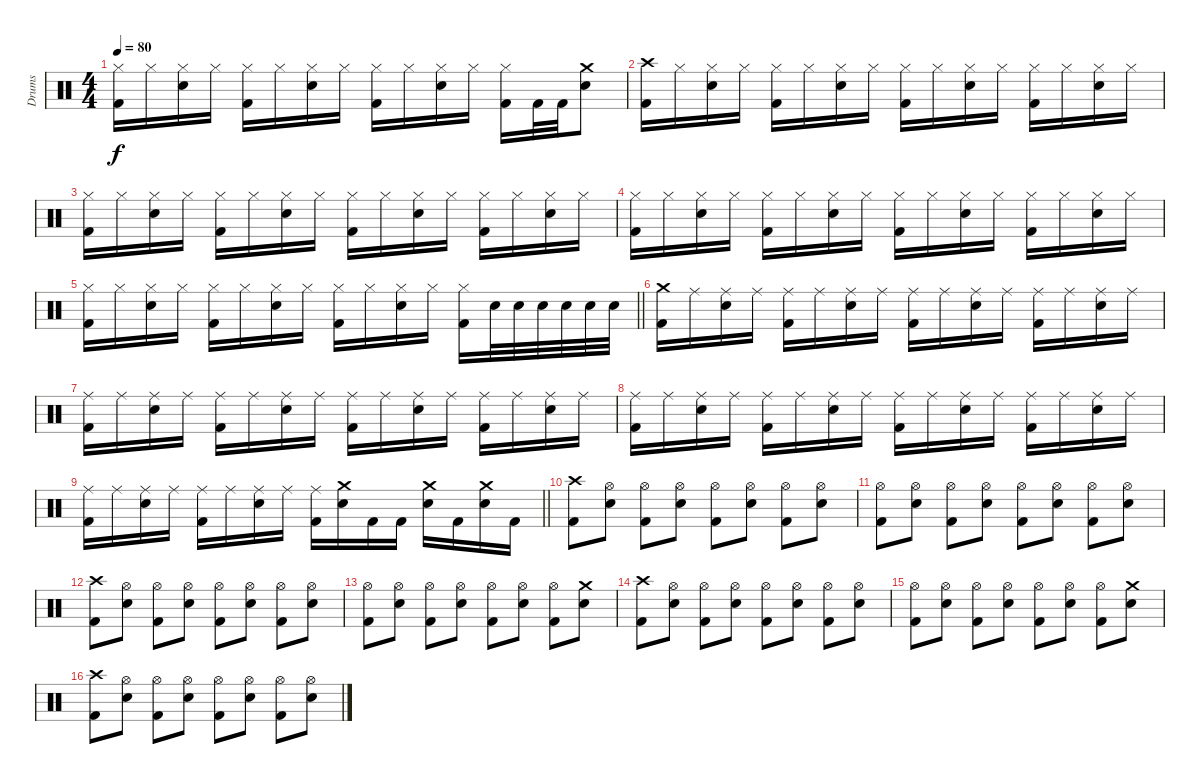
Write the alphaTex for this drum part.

\track ("Drums" "Drums") {instrument percussion}
\staff {score}
\articulation defaults
\ts (4 4)
\tempo 80
\clef neutral
\ks c
("Hi-Hat (closed)" "Kick (hit) 2").16{dy f} "Hi-Hat (closed)".16 ("Hi-Hat (closed)" "Electric Snare (hit)").16 "Hi-Hat (closed)".16 ("Hi-Hat (closed)" "Kick (hit) 2").16 "Hi-Hat (closed)".16 ("Hi-Hat (closed)" "Electric Snare (hit)").16 "Hi-Hat (closed)".16 ("Hi-Hat (closed)" "Kick (hit) 2").16 "Hi-Hat (closed)".16 ("Hi-Hat (closed)" "Electric Snare (hit)").16 "Hi-Hat (closed)".16 ("Hi-Hat (closed)" "Kick (hit) 2").16 "Kick (hit) 2".32 "Kick (hit) 2".32 ("Crash medium (hit)" "Electric Snare (hit)").8 |
("Crash high (hit)" "Kick (hit) 2").16 "Hi-Hat (closed)".16 ("Hi-Hat (closed)" "Electric Snare (hit)").16 "Hi-Hat (closed)".16 ("Hi-Hat (closed)" "Kick (hit) 2").16 "Hi-Hat (closed)".16 ("Hi-Hat (closed)" "Electric Snare (hit)").16 "Hi-Hat (closed)".16 ("Hi-Hat (closed)" "Kick (hit) 2").16 "Hi-Hat (closed)".16 ("Hi-Hat (closed)" "Electric Snare (hit)").16 "Hi-Hat (closed)".16 ("Hi-Hat (closed)" "Kick (hit) 2").16 "Hi-Hat (closed)".16 ("Hi-Hat (closed)" "Electric Snare (hit)").16 "Hi-Hat (closed)".16 |
("Hi-Hat (closed)" "Kick (hit) 2").16 "Hi-Hat (closed)".16 ("Hi-Hat (closed)" "Electric Snare (hit)").16 "Hi-Hat (closed)".16 ("Hi-Hat (closed)" "Kick (hit) 2").16 "Hi-Hat (closed)".16 ("Hi-Hat (closed)" "Electric Snare (hit)").16 "Hi-Hat (closed)".16 ("Hi-Hat (closed)" "Kick (hit) 2").16 "Hi-Hat (closed)".16 ("Hi-Hat (closed)" "Electric Snare (hit)").16 "Hi-Hat (closed)".16 ("Hi-Hat (closed)" "Kick (hit) 2").16 "Hi-Hat (closed)".16 ("Hi-Hat (closed)" "Electric Snare (hit)").16 "Hi-Hat (closed)".16 |
("Hi-Hat (closed)" "Kick (hit) 2").16 "Hi-Hat (closed)".16 ("Hi-Hat (closed)" "Electric Snare (hit)").16 "Hi-Hat (closed)".16 ("Hi-Hat (closed)" "Kick (hit) 2").16 "Hi-Hat (closed)".16 ("Hi-Hat (closed)" "Electric Snare (hit)").16 "Hi-Hat (closed)".16 ("Hi-Hat (closed)" "Kick (hit) 2").16 "Hi-Hat (closed)".16 ("Hi-Hat (closed)" "Electric Snare (hit)").16 "Hi-Hat (closed)".16 ("Hi-Hat (closed)" "Kick (hit) 2").16 "Hi-Hat (closed)".16 ("Hi-Hat (closed)" "Electric Snare (hit)").16 "Hi-Hat (closed)".16 |
\barLineRight lightlight
("Hi-Hat (closed)" "Kick (hit) 2").16 "Hi-Hat (closed)".16 ("Hi-Hat (closed)" "Electric Snare (hit)").16 "Hi-Hat (closed)".16 ("Hi-Hat (closed)" "Kick (hit) 2").16 "Hi-Hat (closed)".16 ("Hi-Hat (closed)" "Electric Snare (hit)").16 "Hi-Hat (closed)".16 ("Hi-Hat (closed)" "Kick (hit) 2").16 "Hi-Hat (closed)".16 ("Hi-Hat (closed)" "Electric Snare (hit)").16 "Hi-Hat (closed)".16 ("Hi-Hat (closed)" "Kick (hit) 2").16 "Electric Snare (hit)".32 "Electric Snare (hit)".32 "Electric Snare (hit)".32 "Electric Snare (hit)".32 "Electric Snare (hit)".32 "Electric Snare (hit)".32 |
("Crash medium (hit)" "Kick (hit) 2").16 "Ride (middle)".16 ("Ride (middle)" "Electric Snare (hit)").16 "Ride (middle)".16 ("Ride (middle)" "Kick (hit) 2").16 "Ride (middle)".16 ("Ride (middle)" "Electric Snare (hit)").16 "Ride (middle)".16 ("Ride (middle)" "Kick (hit) 2").16 "Ride (middle)".16 ("Ride (middle)" "Electric Snare (hit)").16 "Ride (middle)".16 ("Ride (middle)" "Kick (hit) 2").16 "Ride (middle)".16 ("Ride (middle)" "Electric Snare (hit)").16 "Ride (middle)".16 |
("Ride (middle)" "Kick (hit) 2").16 "Ride (middle)".16 ("Ride (middle)" "Electric Snare (hit)").16 "Ride (middle)".16 ("Ride (middle)" "Kick (hit) 2").16 "Ride (middle)".16 ("Ride (middle)" "Electric Snare (hit)").16 "Ride (middle)".16 ("Ride (middle)" "Kick (hit) 2").16 "Ride (middle)".16 ("Ride (middle)" "Electric Snare (hit)").16 "Ride (middle)".16 ("Ride (middle)" "Kick (hit) 2").16 "Ride (middle)".16 ("Ride (middle)" "Electric Snare (hit)").16 "Ride (middle)".16 |
("Ride (middle)" "Kick (hit) 2").16 "Ride (middle)".16 ("Ride (middle)" "Electric Snare (hit)").16 "Ride (middle)".16 ("Ride (middle)" "Kick (hit) 2").16 "Ride (middle)".16 ("Ride (middle)" "Electric Snare (hit)").16 "Ride (middle)".16 ("Ride (middle)" "Kick (hit) 2").16 "Ride (middle)".16 ("Ride (middle)" "Electric Snare (hit)").16 "Ride (middle)".16 ("Ride (middle)" "Kick (hit) 2").16 "Ride (middle)".16 ("Ride (middle)" "Electric Snare (hit)").16 "Ride (middle)".16 |
\barLineRight lightlight
("Ride (middle)" "Kick (hit) 2").16 "Ride (middle)".16 ("Ride (middle)" "Electric Snare (hit)").16 "Ride (middle)".16 ("Ride (middle)" "Kick (hit) 2").16 "Ride (middle)".16 ("Ride (middle)" "Electric Snare (hit)").16 "Ride (middle)".16 ("Ride (middle)" "Kick (hit) 2").16 ("Crash medium (hit)" "Electric Snare (hit)").16 "Kick (hit) 2".16 "Kick (hit) 2".16 ("Crash medium (hit)" "Electric Snare (hit)").16 "Kick (hit) 2".16 ("Crash medium (hit)" "Electric Snare (hit)").16 "Kick (hit) 2".16 |
("Crash high (hit)" "Kick (hit) 2").8 ("Hi-Hat (open)" "Electric Snare (hit)").8 ("Hi-Hat (open)" "Kick (hit) 2").8 ("Hi-Hat (open)" "Electric Snare (hit)").8 ("Hi-Hat (open)" "Kick (hit) 2").8 ("Hi-Hat (open)" "Electric Snare (hit)").8 ("Hi-Hat (open)" "Kick (hit) 2").8 ("Hi-Hat (open)" "Electric Snare (hit)").8 |
("Hi-Hat (open)" "Kick (hit) 2").8 ("Hi-Hat (open)" "Electric Snare (hit)").8 ("Hi-Hat (open)" "Kick (hit) 2").8 ("Hi-Hat (open)" "Electric Snare (hit)").8 ("Hi-Hat (open)" "Kick (hit) 2").8 ("Hi-Hat (open)" "Electric Snare (hit)").8 ("Hi-Hat (open)" "Kick (hit) 2").8 ("Hi-Hat (open)" "Electric Snare (hit)").8 |
("Crash high (hit)" "Kick (hit) 2").8 ("Hi-Hat (open)" "Electric Snare (hit)").8 ("Hi-Hat (open)" "Kick (hit) 2").8 ("Hi-Hat (open)" "Electric Snare (hit)").8 ("Hi-Hat (open)" "Kick (hit) 2").8 ("Hi-Hat (open)" "Electric Snare (hit)").8 ("Hi-Hat (open)" "Kick (hit) 2").8 ("Hi-Hat (open)" "Electric Snare (hit)").8 |
("Hi-Hat (open)" "Kick (hit) 2").8 ("Hi-Hat (open)" "Electric Snare (hit)").8 ("Hi-Hat (open)" "Kick (hit) 2").8 ("Hi-Hat (open)" "Electric Snare (hit)").8 ("Hi-Hat (open)" "Kick (hit) 2").8 ("Hi-Hat (open)" "Electric Snare (hit)").8 ("Hi-Hat (open)" "Kick (hit) 2").8 ("Crash medium (hit)" "Electric Snare (hit)").8 |
("Crash high (hit)" "Kick (hit) 2").8 ("Hi-Hat (open)" "Electric Snare (hit)").8 ("Hi-Hat (open)" "Kick (hit) 2").8 ("Hi-Hat (open)" "Electric Snare (hit)").8 ("Hi-Hat (open)" "Kick (hit) 2").8 ("Hi-Hat (open)" "Electric Snare (hit)").8 ("Hi-Hat (open)" "Kick (hit) 2").8 ("Hi-Hat (open)" "Electric Snare (hit)").8 |
("Hi-Hat (open)" "Kick (hit) 2").8 ("Hi-Hat (open)" "Electric Snare (hit)").8 ("Hi-Hat (open)" "Kick (hit) 2").8 ("Hi-Hat (open)" "Electric Snare (hit)").8 ("Hi-Hat (open)" "Kick (hit) 2").8 ("Hi-Hat (open)" "Electric Snare (hit)").8 ("Hi-Hat (open)" "Kick (hit) 2").8 ("Crash medium (hit)" "Electric Snare (hit)").8 |
("Crash high (hit)" "Kick (hit) 2").8 ("Hi-Hat (open)" "Electric Snare (hit)").8 ("Hi-Hat (open)" "Kick (hit) 2").8 ("Hi-Hat (open)" "Electric Snare (hit)").8 ("Hi-Hat (open)" "Kick (hit) 2").8 ("Hi-Hat (open)" "Electric Snare (hit)").8 ("Hi-Hat (open)" "Kick (hit) 2").8 ("Hi-Hat (open)" "Electric Snare (hit)").8
